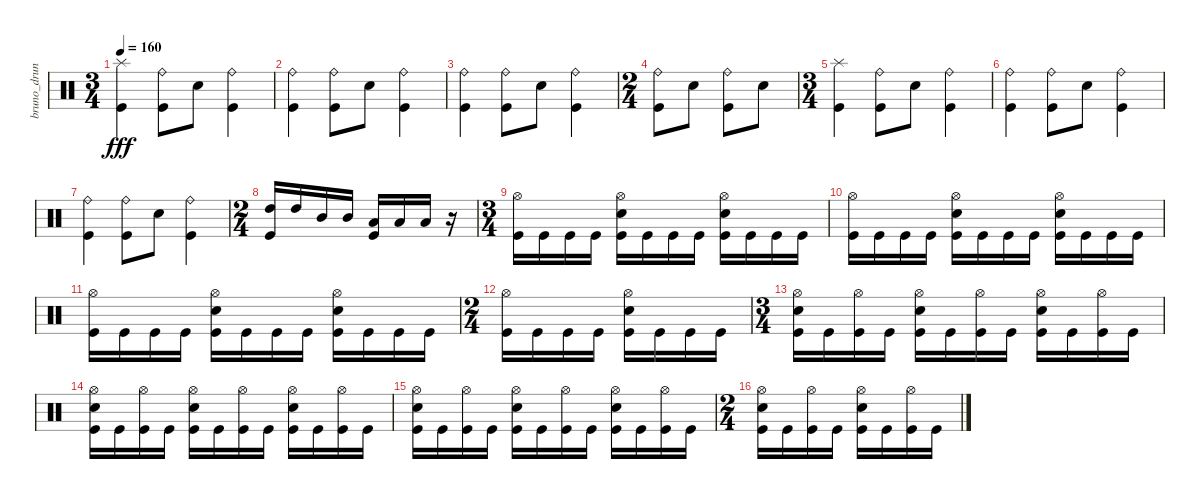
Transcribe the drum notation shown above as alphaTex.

\track ("bruno_druns" "bruno_drun") {instrument percussion}
\staff {score}
\articulation defaults
\ts (3 4)
\tempo 160
\clef neutral
\ks c
("Kick (hit)" "Splash (hit)").4{dy fff} ("Kick (hit)" "Ride (bell)").8 "Electric Snare (hit)".8 ("Kick (hit)" "Ride (bell)").4 |
("Kick (hit)" "Ride (bell)").4 ("Kick (hit)" "Ride (bell)").8 "Electric Snare (hit)".8 ("Kick (hit)" "Ride (bell)").4 |
("Kick (hit)" "Ride (bell)").4 ("Kick (hit)" "Ride (bell)").8 "Electric Snare (hit)".8 ("Kick (hit)" "Ride (bell)").4 |
\ts (2 4)
("Kick (hit)" "Ride (bell)").8 "Electric Snare (hit)".8 ("Kick (hit)" "Ride (bell)").8 "Electric Snare (hit)".8 |
\ts (3 4)
("Kick (hit)" "Splash (hit)").4 ("Kick (hit)" "Ride (bell)").8 "Electric Snare (hit)".8 ("Kick (hit)" "Ride (bell)").4 |
("Kick (hit)" "Ride (bell)").4 ("Kick (hit)" "Ride (bell)").8 "Electric Snare (hit)".8 ("Kick (hit)" "Ride (bell)").4 |
("Kick (hit)" "Ride (bell)").4 ("Kick (hit)" "Ride (bell)").8 "Electric Snare (hit)".8 ("Kick (hit)" "Ride (bell)").4 |
\ts (2 4)
("Kick (hit)" "High Tom (hit)").16 "High Tom (hit)".16 "Mid Tom (hit)".16 "Mid Tom (hit)".16 ("Kick (hit)" "Low Tom (hit)").16 "Low Tom (hit)".16 "Low Tom (hit)".16 r.16 |
\ts (3 4)
("Kick (hit)" "Hi-Hat (open)").16 "Kick (hit)".16 "Kick (hit)".16 "Kick (hit)".16 ("Kick (hit)" "Electric Snare (hit)" "Hi-Hat (open)").16 "Kick (hit)".16 "Kick (hit)".16 "Kick (hit)".16 ("Kick (hit)" "Electric Snare (hit)" "Hi-Hat (open)").16 "Kick (hit)".16 "Kick (hit)".16 "Kick (hit)".16 |
("Kick (hit)" "Hi-Hat (open)").16 "Kick (hit)".16 "Kick (hit)".16 "Kick (hit)".16 ("Kick (hit)" "Electric Snare (hit)" "Hi-Hat (open)").16 "Kick (hit)".16 "Kick (hit)".16 "Kick (hit)".16 ("Kick (hit)" "Electric Snare (hit)" "Hi-Hat (open)").16 "Kick (hit)".16 "Kick (hit)".16 "Kick (hit)".16 |
("Kick (hit)" "Hi-Hat (open)").16 "Kick (hit)".16 "Kick (hit)".16 "Kick (hit)".16 ("Kick (hit)" "Electric Snare (hit)" "Hi-Hat (open)").16 "Kick (hit)".16 "Kick (hit)".16 "Kick (hit)".16 ("Kick (hit)" "Electric Snare (hit)" "Hi-Hat (open)").16 "Kick (hit)".16 "Kick (hit)".16 "Kick (hit)".16 |
\ts (2 4)
("Kick (hit)" "Hi-Hat (open)").16 "Kick (hit)".16 "Kick (hit)".16 "Kick (hit)".16 ("Kick (hit)" "Electric Snare (hit)" "Hi-Hat (open)").16 "Kick (hit)".16 "Kick (hit)".16 "Kick (hit)".16 |
\ts (3 4)
("Kick (hit)" "Electric Snare (hit)" "Hi-Hat (open)").16 "Kick (hit)".16 ("Kick (hit)" "Hi-Hat (open)").16 "Kick (hit)".16 ("Kick (hit)" "Electric Snare (hit)" "Hi-Hat (open)").16 "Kick (hit)".16 ("Kick (hit)" "Hi-Hat (open)").16 "Kick (hit)".16 ("Kick (hit)" "Electric Snare (hit)" "Hi-Hat (open)").16 "Kick (hit)".16 ("Kick (hit)" "Hi-Hat (open)").16 "Kick (hit)".16 |
("Kick (hit)" "Electric Snare (hit)" "Hi-Hat (open)").16 "Kick (hit)".16 ("Kick (hit)" "Hi-Hat (open)").16 "Kick (hit)".16 ("Kick (hit)" "Electric Snare (hit)" "Hi-Hat (open)").16 "Kick (hit)".16 ("Kick (hit)" "Hi-Hat (open)").16 "Kick (hit)".16 ("Kick (hit)" "Electric Snare (hit)" "Hi-Hat (open)").16 "Kick (hit)".16 ("Kick (hit)" "Hi-Hat (open)").16 "Kick (hit)".16 |
("Kick (hit)" "Electric Snare (hit)" "Hi-Hat (open)").16 "Kick (hit)".16 ("Kick (hit)" "Hi-Hat (open)").16 "Kick (hit)".16 ("Kick (hit)" "Electric Snare (hit)" "Hi-Hat (open)").16 "Kick (hit)".16 ("Kick (hit)" "Hi-Hat (open)").16 "Kick (hit)".16 ("Kick (hit)" "Electric Snare (hit)" "Hi-Hat (open)").16 "Kick (hit)".16 ("Kick (hit)" "Hi-Hat (open)").16 "Kick (hit)".16 |
\ts (2 4)
("Kick (hit)" "Electric Snare (hit)" "Hi-Hat (open)").16 "Kick (hit)".16 ("Kick (hit)" "Hi-Hat (open)").16 "Kick (hit)".16 ("Kick (hit)" "Electric Snare (hit)" "Hi-Hat (open)").16 "Kick (hit)".16 ("Kick (hit)" "Hi-Hat (open)").16 "Kick (hit)".16
